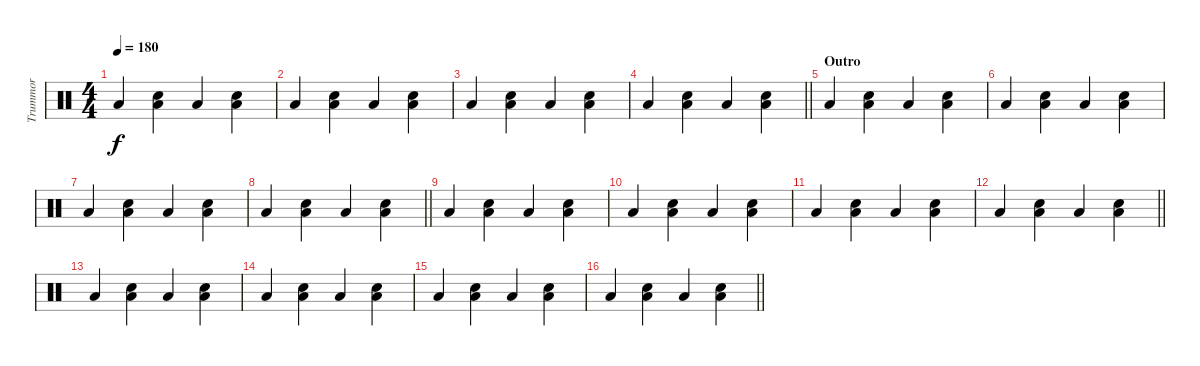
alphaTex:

\track ("Trummor" "Trummor") {instrument percussion}
\staff {score}
\articulation defaults
\ts (4 4)
\tempo 180
\clef neutral
\ks c "Low Tom (hit)".4{dy f}
("Low Tom (hit)" "Snare (hit) 2").4 "Low Tom (hit)".4 ("Low Tom (hit)" "Snare (hit) 2").4 |
"Low Tom (hit)".4 ("Low Tom (hit)" "Snare (hit) 2").4 "Low Tom (hit)".4 ("Low Tom (hit)" "Snare (hit) 2").4 |
"Low Tom (hit)".4 ("Low Tom (hit)" "Snare (hit) 2").4 "Low Tom (hit)".4 ("Low Tom (hit)" "Snare (hit) 2").4 |
\barLineRight lightlight "Low Tom (hit)".4
("Low Tom (hit)" "Snare (hit) 2").4 "Low Tom (hit)".4 ("Low Tom (hit)" "Snare (hit) 2").4 |
\section ("" "Outro")
"Low Tom (hit)".4 ("Low Tom (hit)" "Snare (hit) 2").4 "Low Tom (hit)".4 ("Low Tom (hit)" "Snare (hit) 2").4 |
"Low Tom (hit)".4 ("Low Tom (hit)" "Snare (hit) 2").4 "Low Tom (hit)".4 ("Low Tom (hit)" "Snare (hit) 2").4 |
"Low Tom (hit)".4 ("Low Tom (hit)" "Snare (hit) 2").4 "Low Tom (hit)".4 ("Low Tom (hit)" "Snare (hit) 2").4 |
\barLineRight lightlight "Low Tom (hit)".4
("Low Tom (hit)" "Snare (hit) 2").4 "Low Tom (hit)".4 ("Low Tom (hit)" "Snare (hit) 2").4 |
"Low Tom (hit)".4 ("Low Tom (hit)" "Snare (hit) 2").4 "Low Tom (hit)".4 ("Low Tom (hit)" "Snare (hit) 2").4 |
"Low Tom (hit)".4 ("Low Tom (hit)" "Snare (hit) 2").4 "Low Tom (hit)".4 ("Low Tom (hit)" "Snare (hit) 2").4 |
"Low Tom (hit)".4 ("Low Tom (hit)" "Snare (hit) 2").4 "Low Tom (hit)".4 ("Low Tom (hit)" "Snare (hit) 2").4 |
\barLineRight lightlight "Low Tom (hit)".4
("Low Tom (hit)" "Snare (hit) 2").4 "Low Tom (hit)".4 ("Low Tom (hit)" "Snare (hit) 2").4 |
"Low Tom (hit)".4 ("Low Tom (hit)" "Snare (hit) 2").4 "Low Tom (hit)".4 ("Low Tom (hit)" "Snare (hit) 2").4 |
"Low Tom (hit)".4 ("Low Tom (hit)" "Snare (hit) 2").4 "Low Tom (hit)".4 ("Low Tom (hit)" "Snare (hit) 2").4 |
"Low Tom (hit)".4 ("Low Tom (hit)" "Snare (hit) 2").4 "Low Tom (hit)".4 ("Low Tom (hit)" "Snare (hit) 2").4 |
\barLineRight lightlight "Low Tom (hit)".4
("Low Tom (hit)" "Snare (hit) 2").4 "Low Tom (hit)".4 ("Low Tom (hit)" "Snare (hit) 2").4
